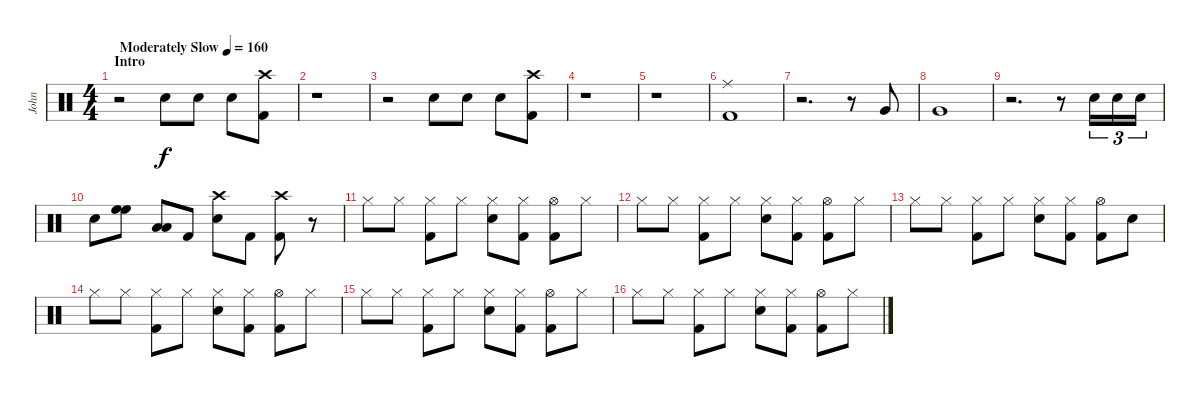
\track ("John" "John") {instrument percussion}
\staff {score}
\articulation defaults
\ts (4 4)
\section ("" "Intro")
\tempo (160 "Moderately Slow")
\clef neutral
\ks c
r.2{dy f} "Snare (hit) 2".8 "Snare (hit) 2".8 "Snare (hit) 2".8 ("Crash high (hit)" "Kick (hit) 2").8 |
r.1 |
r.2 "Snare (hit) 2".8 "Snare (hit) 2".8 "Snare (hit) 2".8 ("Crash high (hit)" "Kick (hit) 2").8 |
r.1 |
r.1 |
("Ride (middle)" "Kick (hit) 2").1 |
r.2{d} r.8 "Very Low Tom (hit)".8 |
"Very Low Tom (hit)".1 |
r.2{d} r.8 "Snare (hit) 2".16{tu (3 2)} "Snare (hit) 2".16{tu (3 2)} "Snare (hit) 2".16{tu (3 2)} |
"Snare (hit) 2".8 ("High Floor Tom (hit)" "High Floor Tom (hit)").8 ("Low Tom (hit)" "Low Tom (hit)").8 "Kick (hit) 2".8 ("Crash high (hit)" "Snare (hit) 2").8 "Kick (hit) 2".8 ("Crash high (hit)" "Kick (hit) 2").8 r.8 |
"Hi-Hat (closed)".8 "Hi-Hat (closed)".8 ("Hi-Hat (closed)" "Kick (hit) 2").8 "Hi-Hat (closed)".8 ("Hi-Hat (closed)" "Snare (hit) 2").8 ("Hi-Hat (closed)" "Kick (hit) 2").8 ("Hi-Hat (open)" "Kick (hit) 2").8 "Hi-Hat (closed)".8 |
"Hi-Hat (closed)".8 "Hi-Hat (closed)".8 ("Hi-Hat (closed)" "Kick (hit) 2").8 "Hi-Hat (closed)".8 ("Hi-Hat (closed)" "Snare (hit) 2").8 ("Hi-Hat (closed)" "Kick (hit) 2").8 ("Hi-Hat (open)" "Kick (hit) 2").8 "Hi-Hat (closed)".8 |
"Hi-Hat (closed)".8 "Hi-Hat (closed)".8 ("Hi-Hat (closed)" "Kick (hit) 2").8 "Hi-Hat (closed)".8 ("Hi-Hat (closed)" "Snare (hit) 2").8 ("Hi-Hat (closed)" "Kick (hit) 2").8 ("Hi-Hat (open)" "Kick (hit) 2").8 "Snare (hit) 2".8 |
"Hi-Hat (closed)".8 "Hi-Hat (closed)".8 ("Hi-Hat (closed)" "Kick (hit) 2").8 "Hi-Hat (closed)".8 ("Hi-Hat (closed)" "Snare (hit) 2").8 ("Hi-Hat (closed)" "Kick (hit) 2").8 ("Hi-Hat (open)" "Kick (hit) 2").8 "Hi-Hat (closed)".8 |
"Hi-Hat (closed)".8 "Hi-Hat (closed)".8 ("Hi-Hat (closed)" "Kick (hit) 2").8 "Hi-Hat (closed)".8 ("Hi-Hat (closed)" "Snare (hit) 2").8 ("Hi-Hat (closed)" "Kick (hit) 2").8 ("Hi-Hat (open)" "Kick (hit) 2").8 "Hi-Hat (closed)".8 |
"Hi-Hat (closed)".8 "Hi-Hat (closed)".8 ("Hi-Hat (closed)" "Kick (hit) 2").8 "Hi-Hat (closed)".8 ("Hi-Hat (closed)" "Snare (hit) 2").8 ("Hi-Hat (closed)" "Kick (hit) 2").8 ("Hi-Hat (open)" "Kick (hit) 2").8 "Hi-Hat (closed)".8
